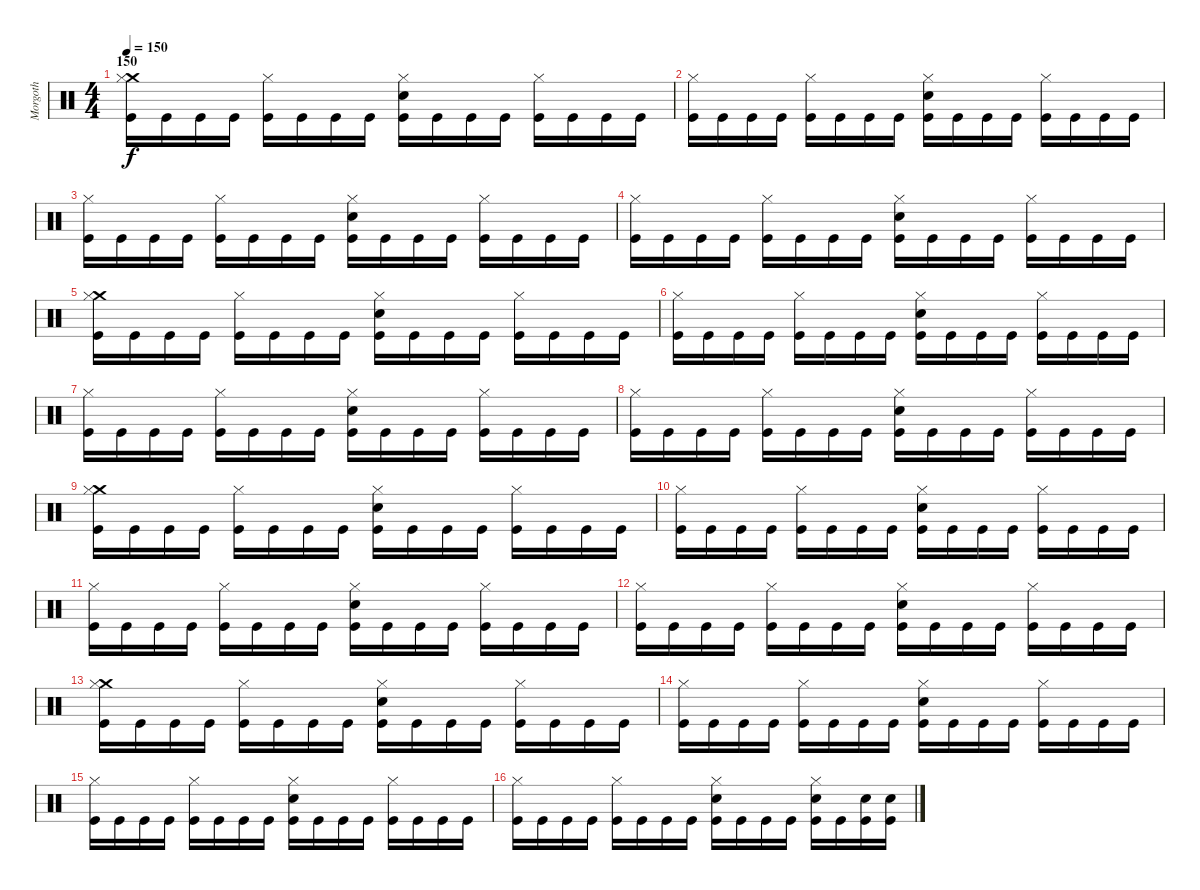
\track ("Morgoth" "Morgoth") {instrument percussion}
\staff {score}
\articulation defaults
\ts (4 4)
\section ("" "150")
\tempo 150
\clef neutral
\ks c
("Crash medium (hit)" "Hi-Hat (closed)" "Kick (hit)").16{dy f} "Kick (hit)".16 "Kick (hit)".16 "Kick (hit)".16 ("Hi-Hat (closed)" "Kick (hit)").16 "Kick (hit)".16 "Kick (hit)".16 "Kick (hit)".16 ("Hi-Hat (closed)" "Electric Snare (hit)" "Kick (hit)").16 "Kick (hit)".16 "Kick (hit)".16 "Kick (hit)".16 ("Hi-Hat (closed)" "Kick (hit)").16 "Kick (hit)".16 "Kick (hit)".16 "Kick (hit)".16 |
("Hi-Hat (closed)" "Kick (hit)").16 "Kick (hit)".16 "Kick (hit)".16 "Kick (hit)".16 ("Hi-Hat (closed)" "Kick (hit)").16 "Kick (hit)".16 "Kick (hit)".16 "Kick (hit)".16 ("Hi-Hat (closed)" "Electric Snare (hit)" "Kick (hit)").16 "Kick (hit)".16 "Kick (hit)".16 "Kick (hit)".16 ("Hi-Hat (closed)" "Kick (hit)").16 "Kick (hit)".16 "Kick (hit)".16 "Kick (hit)".16 |
("Hi-Hat (closed)" "Kick (hit)").16 "Kick (hit)".16 "Kick (hit)".16 "Kick (hit)".16 ("Hi-Hat (closed)" "Kick (hit)").16 "Kick (hit)".16 "Kick (hit)".16 "Kick (hit)".16 ("Hi-Hat (closed)" "Electric Snare (hit)" "Kick (hit)").16 "Kick (hit)".16 "Kick (hit)".16 "Kick (hit)".16 ("Hi-Hat (closed)" "Kick (hit)").16 "Kick (hit)".16 "Kick (hit)".16 "Kick (hit)".16 |
("Hi-Hat (closed)" "Kick (hit)").16 "Kick (hit)".16 "Kick (hit)".16 "Kick (hit)".16 ("Hi-Hat (closed)" "Kick (hit)").16 "Kick (hit)".16 "Kick (hit)".16 "Kick (hit)".16 ("Hi-Hat (closed)" "Electric Snare (hit)" "Kick (hit)").16 "Kick (hit)".16 "Kick (hit)".16 "Kick (hit)".16 ("Hi-Hat (closed)" "Kick (hit)").16 "Kick (hit)".16 "Kick (hit)".16 "Kick (hit)".16 |
("Crash medium (hit)" "Hi-Hat (closed)" "Kick (hit)").16 "Kick (hit)".16 "Kick (hit)".16 "Kick (hit)".16 ("Hi-Hat (closed)" "Kick (hit)").16 "Kick (hit)".16 "Kick (hit)".16 "Kick (hit)".16 ("Hi-Hat (closed)" "Electric Snare (hit)" "Kick (hit)").16 "Kick (hit)".16 "Kick (hit)".16 "Kick (hit)".16 ("Hi-Hat (closed)" "Kick (hit)").16 "Kick (hit)".16 "Kick (hit)".16 "Kick (hit)".16 |
("Hi-Hat (closed)" "Kick (hit)").16 "Kick (hit)".16 "Kick (hit)".16 "Kick (hit)".16 ("Hi-Hat (closed)" "Kick (hit)").16 "Kick (hit)".16 "Kick (hit)".16 "Kick (hit)".16 ("Hi-Hat (closed)" "Electric Snare (hit)" "Kick (hit)").16 "Kick (hit)".16 "Kick (hit)".16 "Kick (hit)".16 ("Hi-Hat (closed)" "Kick (hit)").16 "Kick (hit)".16 "Kick (hit)".16 "Kick (hit)".16 |
("Hi-Hat (closed)" "Kick (hit)").16 "Kick (hit)".16 "Kick (hit)".16 "Kick (hit)".16 ("Hi-Hat (closed)" "Kick (hit)").16 "Kick (hit)".16 "Kick (hit)".16 "Kick (hit)".16 ("Hi-Hat (closed)" "Electric Snare (hit)" "Kick (hit)").16 "Kick (hit)".16 "Kick (hit)".16 "Kick (hit)".16 ("Hi-Hat (closed)" "Kick (hit)").16 "Kick (hit)".16 "Kick (hit)".16 "Kick (hit)".16 |
("Hi-Hat (closed)" "Kick (hit)").16 "Kick (hit)".16 "Kick (hit)".16 "Kick (hit)".16 ("Hi-Hat (closed)" "Kick (hit)").16 "Kick (hit)".16 "Kick (hit)".16 "Kick (hit)".16 ("Hi-Hat (closed)" "Electric Snare (hit)" "Kick (hit)").16 "Kick (hit)".16 "Kick (hit)".16 "Kick (hit)".16 ("Hi-Hat (closed)" "Kick (hit)").16 "Kick (hit)".16 "Kick (hit)".16 "Kick (hit)".16 |
("Crash medium (hit)" "Hi-Hat (closed)" "Kick (hit)").16 "Kick (hit)".16 "Kick (hit)".16 "Kick (hit)".16 ("Hi-Hat (closed)" "Kick (hit)").16 "Kick (hit)".16 "Kick (hit)".16 "Kick (hit)".16 ("Hi-Hat (closed)" "Electric Snare (hit)" "Kick (hit)").16 "Kick (hit)".16 "Kick (hit)".16 "Kick (hit)".16 ("Hi-Hat (closed)" "Kick (hit)").16 "Kick (hit)".16 "Kick (hit)".16 "Kick (hit)".16 |
("Hi-Hat (closed)" "Kick (hit)").16 "Kick (hit)".16 "Kick (hit)".16 "Kick (hit)".16 ("Hi-Hat (closed)" "Kick (hit)").16 "Kick (hit)".16 "Kick (hit)".16 "Kick (hit)".16 ("Hi-Hat (closed)" "Electric Snare (hit)" "Kick (hit)").16 "Kick (hit)".16 "Kick (hit)".16 "Kick (hit)".16 ("Hi-Hat (closed)" "Kick (hit)").16 "Kick (hit)".16 "Kick (hit)".16 "Kick (hit)".16 |
("Hi-Hat (closed)" "Kick (hit)").16 "Kick (hit)".16 "Kick (hit)".16 "Kick (hit)".16 ("Hi-Hat (closed)" "Kick (hit)").16 "Kick (hit)".16 "Kick (hit)".16 "Kick (hit)".16 ("Hi-Hat (closed)" "Electric Snare (hit)" "Kick (hit)").16 "Kick (hit)".16 "Kick (hit)".16 "Kick (hit)".16 ("Hi-Hat (closed)" "Kick (hit)").16 "Kick (hit)".16 "Kick (hit)".16 "Kick (hit)".16 |
("Hi-Hat (closed)" "Kick (hit)").16 "Kick (hit)".16 "Kick (hit)".16 "Kick (hit)".16 ("Hi-Hat (closed)" "Kick (hit)").16 "Kick (hit)".16 "Kick (hit)".16 "Kick (hit)".16 ("Hi-Hat (closed)" "Electric Snare (hit)" "Kick (hit)").16 "Kick (hit)".16 "Kick (hit)".16 "Kick (hit)".16 ("Hi-Hat (closed)" "Kick (hit)").16 "Kick (hit)".16 "Kick (hit)".16 "Kick (hit)".16 |
("Crash medium (hit)" "Hi-Hat (closed)" "Kick (hit)").16 "Kick (hit)".16 "Kick (hit)".16 "Kick (hit)".16 ("Hi-Hat (closed)" "Kick (hit)").16 "Kick (hit)".16 "Kick (hit)".16 "Kick (hit)".16 ("Hi-Hat (closed)" "Electric Snare (hit)" "Kick (hit)").16 "Kick (hit)".16 "Kick (hit)".16 "Kick (hit)".16 ("Hi-Hat (closed)" "Kick (hit)").16 "Kick (hit)".16 "Kick (hit)".16 "Kick (hit)".16 |
("Hi-Hat (closed)" "Kick (hit)").16 "Kick (hit)".16 "Kick (hit)".16 "Kick (hit)".16 ("Hi-Hat (closed)" "Kick (hit)").16 "Kick (hit)".16 "Kick (hit)".16 "Kick (hit)".16 ("Hi-Hat (closed)" "Electric Snare (hit)" "Kick (hit)").16 "Kick (hit)".16 "Kick (hit)".16 "Kick (hit)".16 ("Hi-Hat (closed)" "Kick (hit)").16 "Kick (hit)".16 "Kick (hit)".16 "Kick (hit)".16 |
("Hi-Hat (closed)" "Kick (hit)").16 "Kick (hit)".16 "Kick (hit)".16 "Kick (hit)".16 ("Hi-Hat (closed)" "Kick (hit)").16 "Kick (hit)".16 "Kick (hit)".16 "Kick (hit)".16 ("Hi-Hat (closed)" "Electric Snare (hit)" "Kick (hit)").16 "Kick (hit)".16 "Kick (hit)".16 "Kick (hit)".16 ("Hi-Hat (closed)" "Kick (hit)").16 "Kick (hit)".16 "Kick (hit)".16 "Kick (hit)".16 |
("Hi-Hat (closed)" "Kick (hit)").16 "Kick (hit)".16 "Kick (hit)".16 "Kick (hit)".16 ("Hi-Hat (closed)" "Kick (hit)").16 "Kick (hit)".16 "Kick (hit)".16 "Kick (hit)".16 ("Hi-Hat (closed)" "Electric Snare (hit)" "Kick (hit)").16 "Kick (hit)".16 "Kick (hit)".16 "Kick (hit)".16 ("Hi-Hat (closed)" "Electric Snare (hit)" "Kick (hit)").16 "Kick (hit)".16 ("Electric Snare (hit)" "Kick (hit)").16 ("Electric Snare (hit)" "Kick (hit)").16
